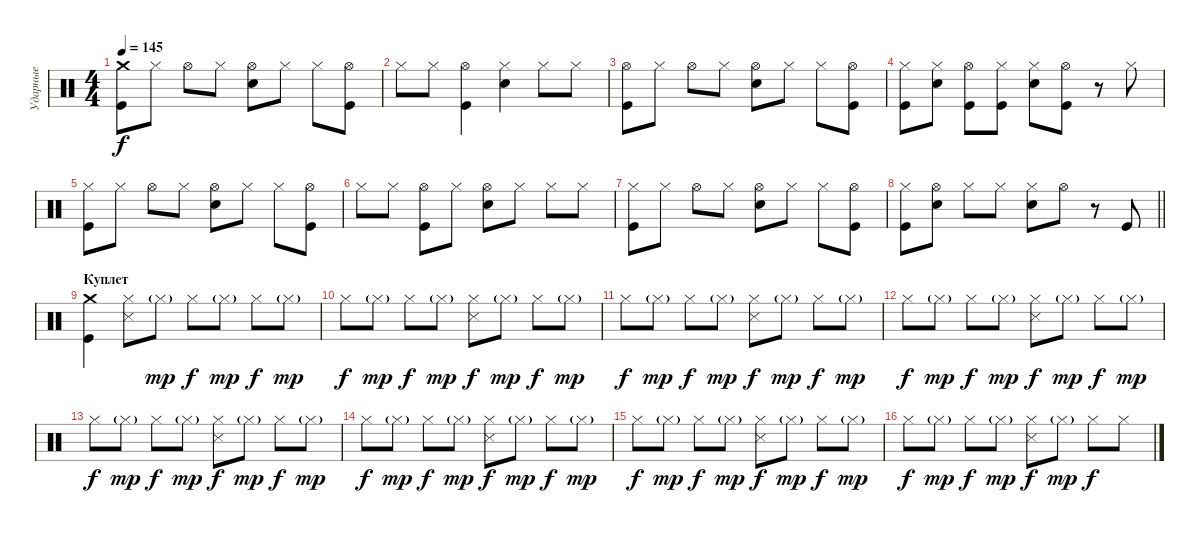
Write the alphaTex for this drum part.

\track ("Ударные" "Ударные") {instrument percussion}
\staff {score}
\articulation defaults
\ts (4 4)
\tempo 145
\clef neutral
\ks c
("Kick (hit)" "Crash medium (hit)").8{dy f} "Hi-Hat (closed)".8 "Hi-Hat (open)".8 "Hi-Hat (closed)".8 ("Snare (hit) 2" "Hi-Hat (open)").8 "Hi-Hat (closed)".8 "Hi-Hat (closed)".8 ("Kick (hit)" "Hi-Hat (open)").8 |
"Hi-Hat (closed)".8 "Hi-Hat (closed)".8 ("Kick (hit)" "Hi-Hat (open)").4 ("Snare (hit) 2" "Hi-Hat (closed)").4 "Hi-Hat (closed)".8 "Hi-Hat (closed)".8 |
("Kick (hit)" "Hi-Hat (open)").8 "Hi-Hat (closed)".8 "Hi-Hat (open)".8 "Hi-Hat (closed)".8 ("Snare (hit) 2" "Hi-Hat (open)").8 "Hi-Hat (closed)".8 "Hi-Hat (closed)".8 ("Kick (hit)" "Hi-Hat (open)").8 |
("Kick (hit)" "Hi-Hat (closed)").8 ("Snare (hit) 2" "Hi-Hat (closed)").8 ("Kick (hit)" "Hi-Hat (open)").8 ("Kick (hit)" "Hi-Hat (closed)").8 ("Snare (hit) 2" "Hi-Hat (closed)").8 ("Kick (hit)" "Hi-Hat (open)").8 r.8 "Hi-Hat (closed)".8 |
("Kick (hit)" "Hi-Hat (closed)").8 "Hi-Hat (closed)".8 "Hi-Hat (open)".8 "Hi-Hat (closed)".8 ("Snare (hit) 2" "Hi-Hat (open)").8 "Hi-Hat (closed)".8 "Hi-Hat (closed)".8 ("Kick (hit)" "Hi-Hat (open)").8 |
"Hi-Hat (closed)".8 "Hi-Hat (closed)".8 ("Kick (hit)" "Hi-Hat (open)").8 "Hi-Hat (closed)".8 ("Snare (hit) 2" "Hi-Hat (open)").8 "Hi-Hat (closed)".8 "Hi-Hat (closed)".8 "Hi-Hat (closed)".8 |
("Kick (hit)" "Hi-Hat (closed)").8 "Hi-Hat (closed)".8 "Hi-Hat (open)".8 "Hi-Hat (closed)".8 ("Snare (hit) 2" "Hi-Hat (open)").8 "Hi-Hat (closed)".8 "Hi-Hat (closed)".8 ("Kick (hit)" "Hi-Hat (open)").8 |
\barLineRight lightlight
("Kick (hit)" "Hi-Hat (closed)").8 ("Snare (hit) 2" "Hi-Hat (open)").8 "Hi-Hat (closed)".8 "Hi-Hat (closed)".8 ("Snare (hit) 2" "Hi-Hat (closed)").8 "Hi-Hat (open)".8 r.8 "Kick (hit)".8 |
\section ("" "Куплет")
("Kick (hit)" "Crash medium (hit)").4 ("Metronome (hit)" "Hi-Hat (closed)").8 "Hi-Hat (closed)"{g}.8{dy mp} "Hi-Hat (closed)".8{dy f} "Hi-Hat (closed)"{g}.8{dy mp} "Hi-Hat (closed)".8{dy f} "Hi-Hat (closed)"{g}.8{dy mp} |
"Hi-Hat (closed)".8{dy f} "Hi-Hat (closed)"{g}.8{dy mp} "Hi-Hat (closed)".8{dy f} "Hi-Hat (closed)"{g}.8{dy mp} ("Metronome (hit)" "Hi-Hat (closed)").8{dy f} "Hi-Hat (closed)"{g}.8{dy mp} "Hi-Hat (closed)".8{dy f} "Hi-Hat (closed)"{g}.8{dy mp} |
"Hi-Hat (closed)".8{dy f} "Hi-Hat (closed)"{g}.8{dy mp} "Hi-Hat (closed)".8{dy f} "Hi-Hat (closed)"{g}.8{dy mp} ("Metronome (hit)" "Hi-Hat (closed)").8{dy f} "Hi-Hat (closed)"{g}.8{dy mp} "Hi-Hat (closed)".8{dy f} "Hi-Hat (closed)"{g}.8{dy mp} |
"Hi-Hat (closed)".8{dy f} "Hi-Hat (closed)"{g}.8{dy mp} "Hi-Hat (closed)".8{dy f} "Hi-Hat (closed)"{g}.8{dy mp} ("Metronome (hit)" "Hi-Hat (closed)").8{dy f} "Hi-Hat (closed)"{g}.8{dy mp} "Hi-Hat (closed)".8{dy f} "Hi-Hat (closed)"{g}.8{dy mp} |
"Hi-Hat (closed)".8{dy f} "Hi-Hat (closed)"{g}.8{dy mp} "Hi-Hat (closed)".8{dy f} "Hi-Hat (closed)"{g}.8{dy mp} ("Metronome (hit)" "Hi-Hat (closed)").8{dy f} "Hi-Hat (closed)"{g}.8{dy mp} "Hi-Hat (closed)".8{dy f} "Hi-Hat (closed)"{g}.8{dy mp} |
"Hi-Hat (closed)".8{dy f} "Hi-Hat (closed)"{g}.8{dy mp} "Hi-Hat (closed)".8{dy f} "Hi-Hat (closed)"{g}.8{dy mp} ("Metronome (hit)" "Hi-Hat (closed)").8{dy f} "Hi-Hat (closed)"{g}.8{dy mp} "Hi-Hat (closed)".8{dy f} "Hi-Hat (closed)"{g}.8{dy mp} |
"Hi-Hat (closed)".8{dy f} "Hi-Hat (closed)"{g}.8{dy mp} "Hi-Hat (closed)".8{dy f} "Hi-Hat (closed)"{g}.8{dy mp} ("Metronome (hit)" "Hi-Hat (closed)").8{dy f} "Hi-Hat (closed)"{g}.8{dy mp} "Hi-Hat (closed)".8{dy f} "Hi-Hat (closed)"{g}.8{dy mp} |
"Hi-Hat (closed)".8{dy f} "Hi-Hat (closed)"{g}.8{dy mp} "Hi-Hat (closed)".8{dy f} "Hi-Hat (closed)"{g}.8{dy mp} ("Metronome (hit)" "Hi-Hat (closed)").8{dy f} "Hi-Hat (closed)"{g}.8{dy mp} "Hi-Hat (closed)".8{dy f} "Hi-Hat (closed)".8
